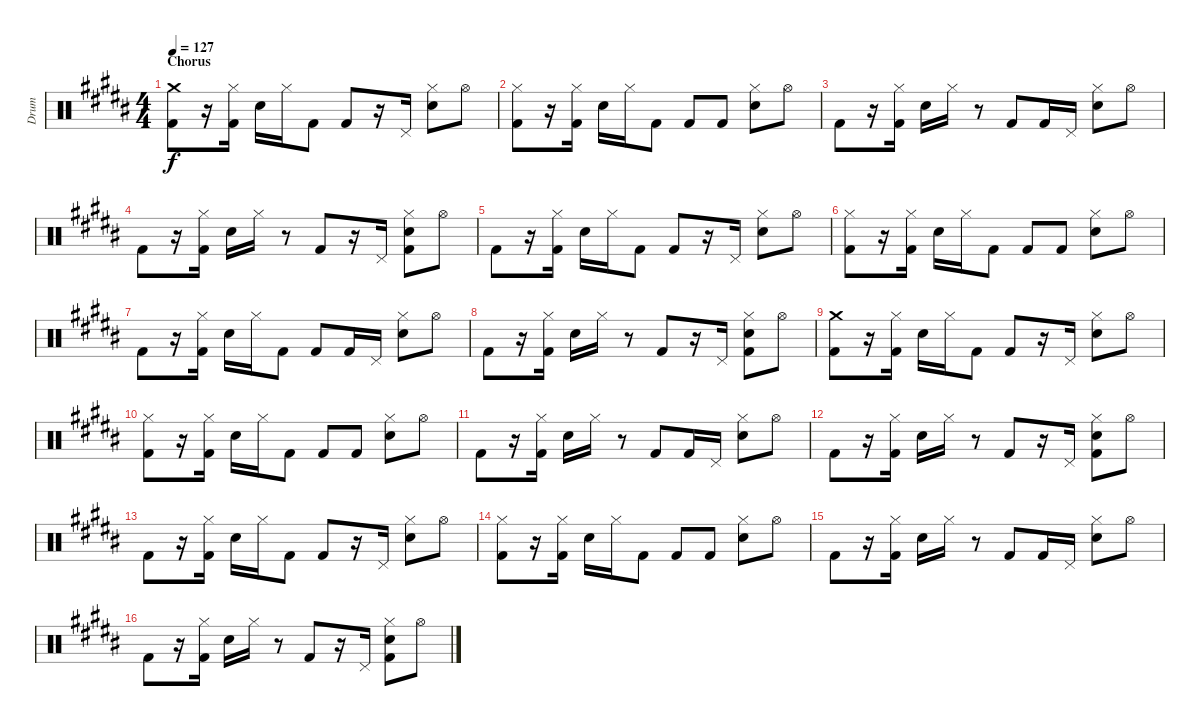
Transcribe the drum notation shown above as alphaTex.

\track ("Drum" "Drum") {instrument percussion}
\staff {score}
\articulation defaults
\ts (4 4)
\section ("" "Chorus")
\tempo 127
\clef neutral
\ks g#minor
("Crash medium (hit)" "Kick (hit) 2").8{dy f} r.16 ("Hi-Hat (closed)" "Kick (hit) 2").16 "Snare (hit) 2".16 "Hi-Hat (closed)".16 "Kick (hit) 2".8 "Kick (hit) 2".8 r.16 "Pedal Hi-Hat (hit)".16 ("Hi-Hat (closed)" "Snare (hit) 2").8 "Hi-Hat (open)".8 |
("Hi-Hat (closed)" "Kick (hit) 2").8 r.16 ("Hi-Hat (closed)" "Kick (hit) 2").16 "Snare (hit) 2".16 "Hi-Hat (closed)".16 "Kick (hit) 2".8 "Kick (hit) 2".8 "Kick (hit) 2".8 ("Hi-Hat (closed)" "Snare (hit) 2").8 "Hi-Hat (open)".8 |
"Kick (hit) 2".8 r.16 ("Hi-Hat (closed)" "Kick (hit) 2").16 "Snare (hit) 2".16 "Hi-Hat (closed)".16 r.8 "Kick (hit) 2".8 "Kick (hit) 2".16 "Pedal Hi-Hat (hit)".16 ("Hi-Hat (closed)" "Snare (hit) 2").8 "Hi-Hat (open)".8 |
"Kick (hit) 2".8 r.16 ("Hi-Hat (closed)" "Kick (hit) 2").16 "Snare (hit) 2".16 "Hi-Hat (closed)".16 r.8 "Kick (hit) 2".8 r.16 "Pedal Hi-Hat (hit)".16 ("Hi-Hat (closed)" "Snare (hit) 2" "Kick (hit) 2").8 "Hi-Hat (open)".8 |
"Kick (hit) 2".8 r.16 ("Hi-Hat (closed)" "Kick (hit) 2").16 "Snare (hit) 2".16 "Hi-Hat (closed)".16 "Kick (hit) 2".8 "Kick (hit) 2".8 r.16 "Pedal Hi-Hat (hit)".16 ("Hi-Hat (closed)" "Snare (hit) 2").8 "Hi-Hat (open)".8 |
("Hi-Hat (closed)" "Kick (hit) 2").8 r.16 ("Hi-Hat (closed)" "Kick (hit) 2").16 "Snare (hit) 2".16 "Hi-Hat (closed)".16 "Kick (hit) 2".8 "Kick (hit) 2".8 "Kick (hit) 2".8 ("Hi-Hat (closed)" "Snare (hit) 2").8 "Hi-Hat (open)".8 |
"Kick (hit) 2".8 r.16 ("Hi-Hat (closed)" "Kick (hit) 2").16 "Snare (hit) 2".16 "Hi-Hat (closed)".16 "Kick (hit) 2".8 "Kick (hit) 2".8 "Kick (hit) 2".16 "Pedal Hi-Hat (hit)".16 ("Hi-Hat (closed)" "Snare (hit) 2").8 "Hi-Hat (open)".8 |
"Kick (hit) 2".8 r.16 ("Hi-Hat (closed)" "Kick (hit) 2").16 "Snare (hit) 2".16 "Hi-Hat (closed)".16 r.8 "Kick (hit) 2".8 r.16 "Pedal Hi-Hat (hit)".16 ("Hi-Hat (closed)" "Snare (hit) 2" "Kick (hit) 2").8 "Hi-Hat (open)".8 |
("Crash medium (hit)" "Kick (hit) 2").8 r.16 ("Hi-Hat (closed)" "Kick (hit) 2").16 "Snare (hit) 2".16 "Hi-Hat (closed)".16 "Kick (hit) 2".8 "Kick (hit) 2".8 r.16 "Pedal Hi-Hat (hit)".16 ("Hi-Hat (closed)" "Snare (hit) 2").8 "Hi-Hat (open)".8 |
("Hi-Hat (closed)" "Kick (hit) 2").8 r.16 ("Hi-Hat (closed)" "Kick (hit) 2").16 "Snare (hit) 2".16 "Hi-Hat (closed)".16 "Kick (hit) 2".8 "Kick (hit) 2".8 "Kick (hit) 2".8 ("Hi-Hat (closed)" "Snare (hit) 2").8 "Hi-Hat (open)".8 |
"Kick (hit) 2".8 r.16 ("Hi-Hat (closed)" "Kick (hit) 2").16 "Snare (hit) 2".16 "Hi-Hat (closed)".16 r.8 "Kick (hit) 2".8 "Kick (hit) 2".16 "Pedal Hi-Hat (hit)".16 ("Hi-Hat (closed)" "Snare (hit) 2").8 "Hi-Hat (open)".8 |
"Kick (hit) 2".8 r.16 ("Hi-Hat (closed)" "Kick (hit) 2").16 "Snare (hit) 2".16 "Hi-Hat (closed)".16 r.8 "Kick (hit) 2".8 r.16 "Pedal Hi-Hat (hit)".16 ("Hi-Hat (closed)" "Snare (hit) 2" "Kick (hit) 2").8 "Hi-Hat (open)".8 |
"Kick (hit) 2".8 r.16 ("Hi-Hat (closed)" "Kick (hit) 2").16 "Snare (hit) 2".16 "Hi-Hat (closed)".16 "Kick (hit) 2".8 "Kick (hit) 2".8 r.16 "Pedal Hi-Hat (hit)".16 ("Hi-Hat (closed)" "Snare (hit) 2").8 "Hi-Hat (open)".8 |
("Hi-Hat (closed)" "Kick (hit) 2").8 r.16 ("Hi-Hat (closed)" "Kick (hit) 2").16 "Snare (hit) 2".16 "Hi-Hat (closed)".16 "Kick (hit) 2".8 "Kick (hit) 2".8 "Kick (hit) 2".8 ("Hi-Hat (closed)" "Snare (hit) 2").8 "Hi-Hat (open)".8 |
"Kick (hit) 2".8 r.16 ("Hi-Hat (closed)" "Kick (hit) 2").16 "Snare (hit) 2".16 "Hi-Hat (closed)".16 r.8 "Kick (hit) 2".8 "Kick (hit) 2".16 "Pedal Hi-Hat (hit)".16 ("Hi-Hat (closed)" "Snare (hit) 2").8 "Hi-Hat (open)".8 |
"Kick (hit) 2".8 r.16 ("Hi-Hat (closed)" "Kick (hit) 2").16 "Snare (hit) 2".16 "Hi-Hat (closed)".16 r.8 "Kick (hit) 2".8 r.16 "Pedal Hi-Hat (hit)".16 ("Hi-Hat (closed)" "Snare (hit) 2" "Kick (hit) 2").8 "Hi-Hat (open)".8
